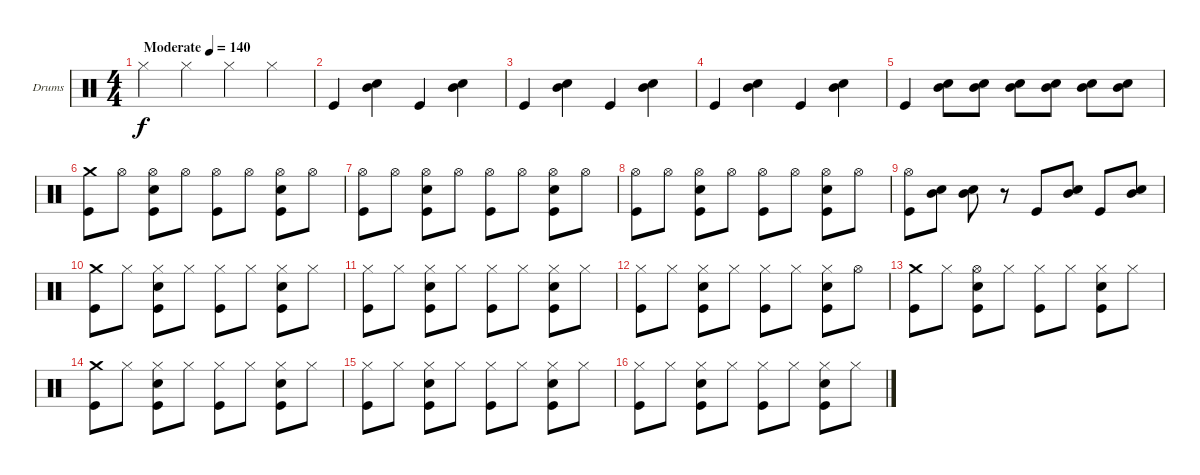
\bracketExtendMode groupsimilarinstruments
\firstSystemTrackNameOrientation horizontal
\otherSystemsTrackNameOrientation horizontal
\track ("Drumkit" "Drums") {instrument percussion}
\staff {score}
\articulation defaults
\ts (4 4)
\beaming (8 2 2 2 2)
\tempo (140 "Moderate")
\clef neutral
\ks c "Hi-Hat (closed)".4{dy f} "Hi-Hat (closed)".4 "Hi-Hat (closed)".4 "Hi-Hat (closed)".4
|
"Kick (hit)".4 ("Mid Tom (hit)" "Snare (hit) 2").4 "Kick (hit)".4 ("Mid Tom (hit)" "Snare (hit) 2").4 |
"Kick (hit)".4 ("Mid Tom (hit)" "Snare (hit) 2").4 "Kick (hit)".4 ("Mid Tom (hit)" "Snare (hit) 2").4 |
"Kick (hit)".4 ("Mid Tom (hit)" "Snare (hit) 2").4 "Kick (hit)".4 ("Mid Tom (hit)" "Snare (hit) 2").4 |
"Kick (hit)".4 ("Mid Tom (hit)" "Snare (hit) 2").8 ("Mid Tom (hit)" "Snare (hit) 2").8 ("Mid Tom (hit)" "Snare (hit) 2").8 ("Mid Tom (hit)" "Snare (hit) 2").8 ("Mid Tom (hit)" "Snare (hit) 2").8 ("Mid Tom (hit)" "Snare (hit) 2").8 |
("Crash medium (hit)" "Kick (hit)").8 "Hi-Hat (open)".8 ("Hi-Hat (open)" "Snare (hit) 2" "Kick (hit)").8 "Hi-Hat (open)".8 ("Hi-Hat (open)" "Kick (hit)").8 "Hi-Hat (open)".8 ("Hi-Hat (open)" "Snare (hit) 2" "Kick (hit)").8 "Hi-Hat (open)".8 |
("Hi-Hat (open)" "Kick (hit)").8 "Hi-Hat (open)".8 ("Hi-Hat (open)" "Snare (hit) 2" "Kick (hit)").8 "Hi-Hat (open)".8 ("Hi-Hat (open)" "Kick (hit)").8 "Hi-Hat (open)".8 ("Hi-Hat (open)" "Snare (hit) 2" "Kick (hit)").8 "Hi-Hat (open)".8 |
("Hi-Hat (open)" "Kick (hit)").8 "Hi-Hat (open)".8 ("Hi-Hat (open)" "Snare (hit) 2" "Kick (hit)").8 "Hi-Hat (open)".8 ("Hi-Hat (open)" "Kick (hit)").8 "Hi-Hat (open)".8 ("Hi-Hat (open)" "Snare (hit) 2" "Kick (hit)").8 "Hi-Hat (open)".8 |
("Hi-Hat (open)" "Kick (hit)").8 ("Mid Tom (hit)" "Snare (hit) 2").8 ("Mid Tom (hit)" "Snare (hit) 2").8 r.8 "Kick (hit)".8 ("Mid Tom (hit)" "Snare (hit) 2").8 "Kick (hit)".8 ("Mid Tom (hit)" "Snare (hit) 2").8 |
("Crash medium (hit)" "Kick (hit)").8 "Hi-Hat (closed)".8 ("Hi-Hat (closed)" "Snare (hit) 2" "Kick (hit)").8 "Hi-Hat (closed)".8 ("Hi-Hat (closed)" "Kick (hit)").8 "Hi-Hat (closed)".8 ("Hi-Hat (closed)" "Snare (hit) 2" "Kick (hit)").8 "Hi-Hat (closed)".8 |
("Hi-Hat (closed)" "Kick (hit)").8 "Hi-Hat (closed)".8 ("Hi-Hat (closed)" "Snare (hit) 2" "Kick (hit)").8 "Hi-Hat (closed)".8 ("Hi-Hat (closed)" "Kick (hit)").8 "Hi-Hat (closed)".8 ("Hi-Hat (closed)" "Snare (hit) 2" "Kick (hit)").8 "Hi-Hat (closed)".8 |
("Hi-Hat (closed)" "Kick (hit)").8 "Hi-Hat (closed)".8 ("Hi-Hat (closed)" "Snare (hit) 2" "Kick (hit)").8 "Hi-Hat (closed)".8 ("Hi-Hat (closed)" "Kick (hit)").8 "Hi-Hat (closed)".8 ("Hi-Hat (closed)" "Snare (hit) 2" "Kick (hit)").8 "Hi-Hat (open)".8 |
("Crash medium (hit)" "Kick (hit)").8 "Hi-Hat (closed)".8 ("Hi-Hat (open)" "Snare (hit) 2" "Kick (hit)").8 "Hi-Hat (closed)".8 ("Hi-Hat (closed)" "Kick (hit)").8 "Hi-Hat (closed)".8 ("Hi-Hat (closed)" "Snare (hit) 2" "Kick (hit)").8 "Hi-Hat (closed)".8 |
("Crash medium (hit)" "Kick (hit)").8 "Hi-Hat (closed)".8 ("Hi-Hat (closed)" "Snare (hit) 2" "Kick (hit)").8 "Hi-Hat (closed)".8 ("Hi-Hat (closed)" "Kick (hit)").8 "Hi-Hat (closed)".8 ("Hi-Hat (closed)" "Snare (hit) 2" "Kick (hit)").8 "Hi-Hat (closed)".8 |
("Hi-Hat (closed)" "Kick (hit)").8 "Hi-Hat (closed)".8 ("Hi-Hat (closed)" "Snare (hit) 2" "Kick (hit)").8 "Hi-Hat (closed)".8 ("Hi-Hat (closed)" "Kick (hit)").8 "Hi-Hat (closed)".8 ("Hi-Hat (closed)" "Snare (hit) 2" "Kick (hit)").8 "Hi-Hat (closed)".8 |
("Hi-Hat (closed)" "Kick (hit)").8 "Hi-Hat (closed)".8 ("Hi-Hat (closed)" "Snare (hit) 2" "Kick (hit)").8 "Hi-Hat (closed)".8 ("Hi-Hat (closed)" "Kick (hit)").8 "Hi-Hat (closed)".8 ("Hi-Hat (closed)" "Snare (hit) 2" "Kick (hit)").8 "Hi-Hat (closed)".8
